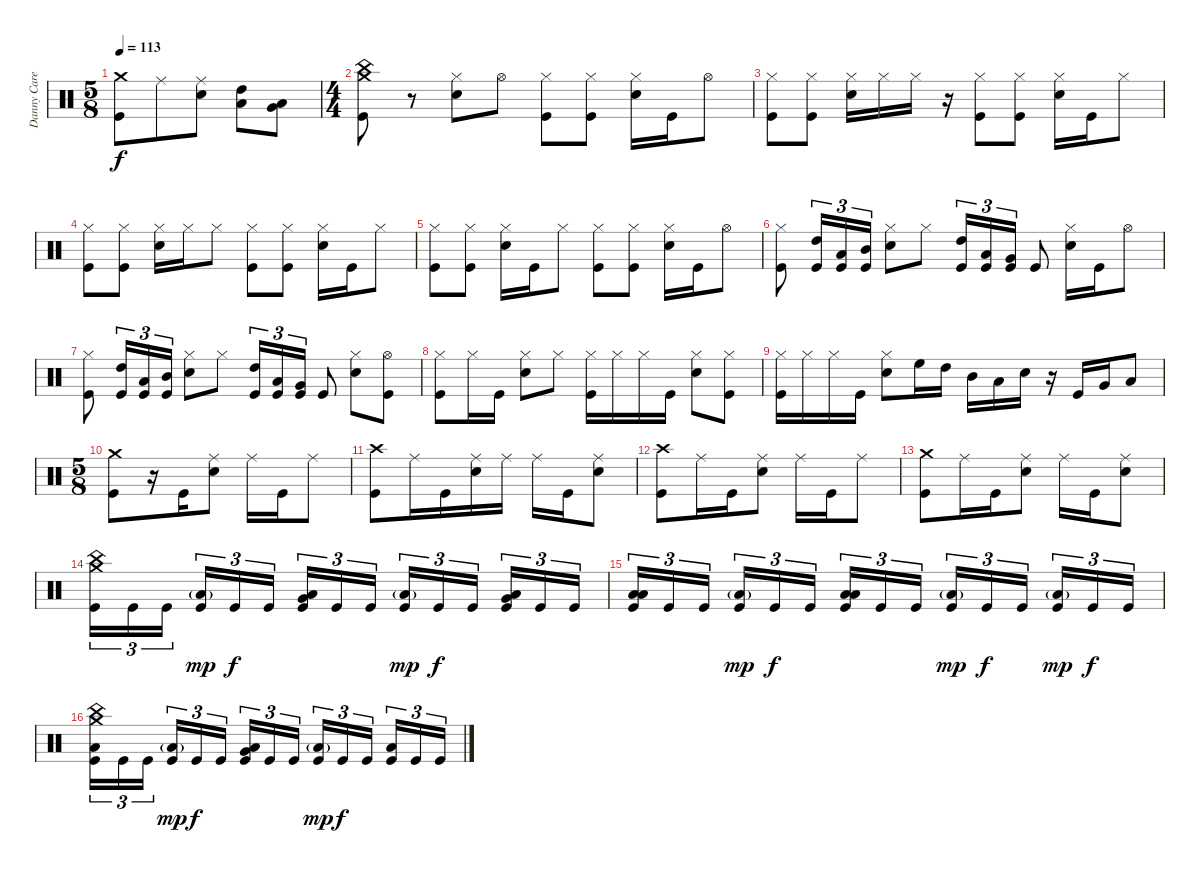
\track ("Danny Carey (drum)" "Danny Care") {instrument percussion}
\staff {score}
\articulation defaults
\ts (5 8)
\tempo 113
\clef neutral
\ks c
("Crash medium (hit)" "Kick (hit)").8{dy f} "Ride (middle)".8 ("Ride (middle)" "Snare (hit) 2").8 ("High Tom (hit)" "Low Tom (hit)").8 ("Low Tom (hit)" "Very Low Tom (hit)").8 |
\ts (4 4)
("Crash medium (hit)" "China (hit)" "Kick (hit)").8 r.8 ("Hi-Hat (closed)" "Snare (hit) 2").8 "Hi-Hat (open)".8 ("Hi-Hat (closed)" "Kick (hit)").8 ("Hi-Hat (closed)" "Kick (hit)").8 ("Hi-Hat (closed)" "Snare (hit) 2").16 "Kick (hit)".16 "Hi-Hat (open)".8 |
("Hi-Hat (closed)" "Kick (hit)").8 ("Hi-Hat (closed)" "Kick (hit)").8 ("Hi-Hat (closed)" "Snare (hit) 2").16 "Hi-Hat (closed)".16 "Hi-Hat (closed)".16 r.16 ("Hi-Hat (closed)" "Kick (hit)").8 ("Hi-Hat (closed)" "Kick (hit)").8 ("Hi-Hat (closed)" "Snare (hit) 2").16 "Kick (hit)".16 "Hi-Hat (closed)".8 |
("Hi-Hat (closed)" "Kick (hit)").8 ("Hi-Hat (closed)" "Kick (hit)").8 ("Hi-Hat (closed)" "Snare (hit) 2").16 "Hi-Hat (closed)".16 "Hi-Hat (closed)".8 ("Hi-Hat (closed)" "Kick (hit)").8 ("Hi-Hat (closed)" "Kick (hit)").8 ("Hi-Hat (closed)" "Snare (hit) 2").16 "Kick (hit)".16 "Hi-Hat (closed)".8 |
("Hi-Hat (closed)" "Kick (hit)").8 ("Hi-Hat (closed)" "Kick (hit)").8 ("Hi-Hat (closed)" "Snare (hit) 2").16 "Kick (hit)".16 "Hi-Hat (closed)".8 ("Hi-Hat (closed)" "Kick (hit)").8 ("Hi-Hat (closed)" "Kick (hit)").8 ("Hi-Hat (closed)" "Snare (hit) 2").16 "Kick (hit)".16 "Hi-Hat (open)".8 |
("Hi-Hat (closed)" "Kick (hit)").8 ("High Tom (hit)" "Kick (hit)").16{tu (3 2)} ("Low Tom (hit)" "Kick (hit)").16{tu (3 2)} ("Mid Tom (hit)" "Kick (hit)").16{tu (3 2)} ("Hi-Hat (closed)" "Snare (hit) 2").8 "Hi-Hat (closed)".8 ("High Tom (hit)" "Kick (hit)").16{tu (3 2)} ("Low Tom (hit)" "Kick (hit)").16{tu (3 2)} ("Very Low Tom (hit)" "Kick (hit)").16{tu (3 2)} "Kick (hit)".8 ("Hi-Hat (closed)" "Snare (hit) 2").16 "Kick (hit)".16 "Hi-Hat (open)".8 |
("Hi-Hat (closed)" "Kick (hit)").8 ("High Tom (hit)" "Kick (hit)").16{tu (3 2)} ("Low Tom (hit)" "Kick (hit)").16{tu (3 2)} ("Mid Tom (hit)" "Kick (hit)").16{tu (3 2)} ("Hi-Hat (closed)" "Snare (hit) 2").8 "Hi-Hat (closed)".8 ("High Tom (hit)" "Kick (hit)").16{tu (3 2)} ("Low Tom (hit)" "Kick (hit)").16{tu (3 2)} ("Very Low Tom (hit)" "Kick (hit)").16{tu (3 2)} "Kick (hit)".8 ("Hi-Hat (closed)" "Snare (hit) 2").8 ("Hi-Hat (open)" "Kick (hit)").8 |
("Hi-Hat (closed)" "Kick (hit)").8 "Hi-Hat (closed)".16 "Kick (hit)".16 ("Hi-Hat (closed)" "Snare (hit) 2").8 "Hi-Hat (closed)".8 ("Hi-Hat (closed)" "Kick (hit)").16 "Hi-Hat (closed)".16 "Hi-Hat (closed)".16 "Kick (hit)".16 ("Hi-Hat (closed)" "Snare (hit) 2").8 ("Hi-Hat (closed)" "Kick (hit)").8 |
("Hi-Hat (closed)" "Kick (hit)").16 "Hi-Hat (closed)".16 "Hi-Hat (closed)".16 "Kick (hit)".16 ("Hi-Hat (closed)" "Snare (hit) 2").8 "High Floor Tom (hit)".16 "High Tom (hit)".16 "Mid Tom (hit)".16 "Low Tom (hit)".16 "Snare (hit) 2".16 r.16 "Kick (hit)".16 "Very Low Tom (hit)".16 "Low Floor Tom (hit)".8 |
\ts (5 8)
("Crash medium (hit)" "Kick (hit)").8 r.16 "Kick (hit)".16 ("Ride (middle)" "Snare (hit) 2").8 "Ride (middle)".16 "Kick (hit)".16 "Ride (middle)".8 |
("Crash high (hit)" "Kick (hit)").8 "Ride (middle)".16 "Kick (hit)".16 ("Ride (middle)" "Snare (hit) 2").16 "Ride (middle)".16 "Ride (middle)".16 "Kick (hit)".16 ("Ride (middle)" "Snare (hit) 2").8 |
("Crash high (hit)" "Kick (hit)").8 "Ride (middle)".16 "Kick (hit)".16 ("Ride (middle)" "Snare (hit) 2").8 "Ride (middle)".16 "Kick (hit)".16 "Ride (middle)".8 |
("Crash medium (hit)" "Kick (hit)").8 "Ride (middle)".16 "Kick (hit)".16 ("Ride (middle)" "Snare (hit) 2").8 "Ride (middle)".16 "Kick (hit)".16 ("Ride (middle)" "Snare (hit) 2").8 |
("Crash medium (hit)" "China (hit)" "Kick (hit)").16{tu (3 2)} "Kick (hit)".16{tu (3 2)} "Kick (hit)".16{tu (3 2)} ("Low Floor Tom (hit)"{g} "Kick (hit)").16{tu (3 2) dy mp} "Kick (hit)".16{tu (3 2) dy f} "Kick (hit)".16{tu (3 2)} ("Very Low Tom (hit)" "Low Floor Tom (hit)" "Kick (hit)").16{tu (3 2)} "Kick (hit)".16{tu (3 2)} "Kick (hit)".16{tu (3 2)} ("Low Floor Tom (hit)"{g} "Kick (hit)").16{tu (3 2) dy mp} "Kick (hit)".16{tu (3 2) dy f} "Kick (hit)".16{tu (3 2)} ("Very Low Tom (hit)" "Low Floor Tom (hit)" "Kick (hit)").16{tu (3 2)} "Kick (hit)".16{tu (3 2)} "Kick (hit)".16{tu (3 2)} |
("Low Tom (hit)" "Low Floor Tom (hit)" "Kick (hit)").16{tu (3 2)} "Kick (hit)".16{tu (3 2)} "Kick (hit)".16{tu (3 2)} ("Low Floor Tom (hit)"{g} "Kick (hit)").16{tu (3 2) dy mp} "Kick (hit)".16{tu (3 2) dy f} "Kick (hit)".16{tu (3 2)} ("Low Floor Tom (hit)" "Low Floor Tom (hit)" "Kick (hit)").16{tu (3 2)} "Kick (hit)".16{tu (3 2)} "Kick (hit)".16{tu (3 2)} ("Low Floor Tom (hit)"{g} "Kick (hit)").16{tu (3 2) dy mp} "Kick (hit)".16{tu (3 2) dy f} "Kick (hit)".16{tu (3 2)} ("Low Floor Tom (hit)"{g} "Kick (hit)").16{tu (3 2) dy mp} "Kick (hit)".16{tu (3 2) dy f} "Kick (hit)".16{tu (3 2)} |
("Crash medium (hit)" "China (hit)" "Low Floor Tom (hit)" "Kick (hit)").16{tu (3 2)} "Kick (hit)".16{tu (3 2)} "Kick (hit)".16{tu (3 2)} ("Low Floor Tom (hit)"{g} "Kick (hit)").16{tu (3 2) dy mp} "Kick (hit)".16{tu (3 2) dy f} "Kick (hit)".16{tu (3 2)} ("Very Low Tom (hit)" "Low Floor Tom (hit)" "Kick (hit)").16{tu (3 2)} "Kick (hit)".16{tu (3 2)} "Kick (hit)".16{tu (3 2)} ("Low Floor Tom (hit)"{g} "Kick (hit)").16{tu (3 2) dy mp} "Kick (hit)".16{tu (3 2) dy f} "Kick (hit)".16{tu (3 2)} ("Low Floor Tom (hit)" "Kick (hit)").16{tu (3 2)} "Kick (hit)".16{tu (3 2)} "Kick (hit)".16{tu (3 2)}
